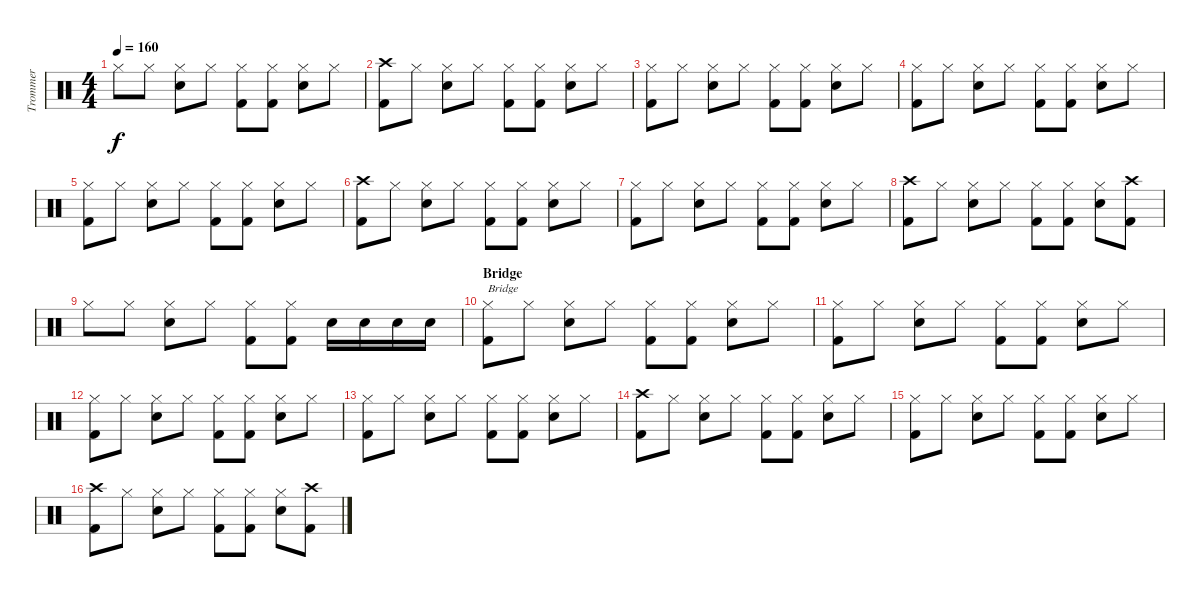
\track ("Trommer" "Trommer") {instrument percussion}
\staff {score}
\articulation defaults
\ts (4 4)
\tempo 160
\clef neutral
\ks c "Hi-Hat (closed)".8{dy f} "Hi-Hat (closed)".8
("Hi-Hat (closed)" "Electric Snare (hit)").8 "Hi-Hat (closed)".8 ("Hi-Hat (closed)" "Kick (hit) 2").8 ("Hi-Hat (closed)" "Kick (hit) 2").8 ("Hi-Hat (closed)" "Electric Snare (hit)").8 "Hi-Hat (closed)".8 |
("Crash high (hit)" "Kick (hit) 2").8 "Hi-Hat (closed)".8 ("Hi-Hat (closed)" "Electric Snare (hit)").8 "Hi-Hat (closed)".8 ("Hi-Hat (closed)" "Kick (hit) 2").8 ("Hi-Hat (closed)" "Kick (hit) 2").8 ("Hi-Hat (closed)" "Electric Snare (hit)").8 "Hi-Hat (closed)".8 |
("Hi-Hat (closed)" "Kick (hit) 2").8 "Hi-Hat (closed)".8 ("Hi-Hat (closed)" "Electric Snare (hit)").8 "Hi-Hat (closed)".8 ("Hi-Hat (closed)" "Kick (hit) 2").8 ("Hi-Hat (closed)" "Kick (hit) 2").8 ("Hi-Hat (closed)" "Electric Snare (hit)").8 "Hi-Hat (closed)".8 |
("Hi-Hat (closed)" "Kick (hit) 2").8 "Hi-Hat (closed)".8 ("Hi-Hat (closed)" "Electric Snare (hit)").8 "Hi-Hat (closed)".8 ("Hi-Hat (closed)" "Kick (hit) 2").8 ("Hi-Hat (closed)" "Kick (hit) 2").8 ("Hi-Hat (closed)" "Electric Snare (hit)").8 "Hi-Hat (closed)".8 |
("Hi-Hat (closed)" "Kick (hit) 2").8 "Hi-Hat (closed)".8 ("Hi-Hat (closed)" "Electric Snare (hit)").8 "Hi-Hat (closed)".8 ("Hi-Hat (closed)" "Kick (hit) 2").8 ("Hi-Hat (closed)" "Kick (hit) 2").8 ("Hi-Hat (closed)" "Electric Snare (hit)").8 "Hi-Hat (closed)".8 |
("Crash high (hit)" "Kick (hit) 2").8 "Hi-Hat (closed)".8 ("Hi-Hat (closed)" "Electric Snare (hit)").8 "Hi-Hat (closed)".8 ("Hi-Hat (closed)" "Kick (hit) 2").8 ("Hi-Hat (closed)" "Kick (hit) 2").8 ("Hi-Hat (closed)" "Electric Snare (hit)").8 "Hi-Hat (closed)".8 |
("Hi-Hat (closed)" "Kick (hit) 2").8 "Hi-Hat (closed)".8 ("Hi-Hat (closed)" "Electric Snare (hit)").8 "Hi-Hat (closed)".8 ("Hi-Hat (closed)" "Kick (hit) 2").8 ("Hi-Hat (closed)" "Kick (hit) 2").8 ("Hi-Hat (closed)" "Electric Snare (hit)").8 "Hi-Hat (closed)".8 |
("Crash high (hit)" "Kick (hit) 2").8 "Hi-Hat (closed)".8 ("Hi-Hat (closed)" "Electric Snare (hit)").8 "Hi-Hat (closed)".8 ("Hi-Hat (closed)" "Kick (hit) 2").8 ("Hi-Hat (closed)" "Kick (hit) 2").8 ("Hi-Hat (closed)" "Electric Snare (hit)").8 ("Crash high (hit)" "Kick (hit) 2").8 |
"Hi-Hat (closed)".8 "Hi-Hat (closed)".8 ("Hi-Hat (closed)" "Electric Snare (hit)").8 "Hi-Hat (closed)".8 ("Hi-Hat (closed)" "Kick (hit) 2").8 ("Hi-Hat (closed)" "Kick (hit) 2").8 "Electric Snare (hit)".16 "Electric Snare (hit)".16 "Electric Snare (hit)".16 "Electric Snare (hit)".16 |
\section ("" "Bridge")
("Hi-Hat (closed)" "Kick (hit) 2").8{txt "Bridge"} "Hi-Hat (closed)".8 ("Hi-Hat (closed)" "Electric Snare (hit)").8 "Hi-Hat (closed)".8 ("Hi-Hat (closed)" "Kick (hit) 2").8 ("Hi-Hat (closed)" "Kick (hit) 2").8 ("Hi-Hat (closed)" "Electric Snare (hit)").8 "Hi-Hat (closed)".8 |
("Hi-Hat (closed)" "Kick (hit) 2").8 "Hi-Hat (closed)".8 ("Hi-Hat (closed)" "Electric Snare (hit)").8 "Hi-Hat (closed)".8 ("Hi-Hat (closed)" "Kick (hit) 2").8 ("Hi-Hat (closed)" "Kick (hit) 2").8 ("Hi-Hat (closed)" "Electric Snare (hit)").8 "Hi-Hat (closed)".8 |
("Hi-Hat (closed)" "Kick (hit) 2").8 "Hi-Hat (closed)".8 ("Hi-Hat (closed)" "Electric Snare (hit)").8 "Hi-Hat (closed)".8 ("Hi-Hat (closed)" "Kick (hit) 2").8 ("Hi-Hat (closed)" "Kick (hit) 2").8 ("Hi-Hat (closed)" "Electric Snare (hit)").8 "Hi-Hat (closed)".8 |
("Hi-Hat (closed)" "Kick (hit) 2").8 "Hi-Hat (closed)".8 ("Hi-Hat (closed)" "Electric Snare (hit)").8 "Hi-Hat (closed)".8 ("Hi-Hat (closed)" "Kick (hit) 2").8 ("Hi-Hat (closed)" "Kick (hit) 2").8 ("Hi-Hat (closed)" "Electric Snare (hit)").8 "Hi-Hat (closed)".8 |
("Crash high (hit)" "Kick (hit) 2").8 "Hi-Hat (closed)".8 ("Hi-Hat (closed)" "Electric Snare (hit)").8 "Hi-Hat (closed)".8 ("Hi-Hat (closed)" "Kick (hit) 2").8 ("Hi-Hat (closed)" "Kick (hit) 2").8 ("Hi-Hat (closed)" "Electric Snare (hit)").8 "Hi-Hat (closed)".8 |
("Hi-Hat (closed)" "Kick (hit) 2").8 "Hi-Hat (closed)".8 ("Hi-Hat (closed)" "Electric Snare (hit)").8 "Hi-Hat (closed)".8 ("Hi-Hat (closed)" "Kick (hit) 2").8 ("Hi-Hat (closed)" "Kick (hit) 2").8 ("Hi-Hat (closed)" "Electric Snare (hit)").8 "Hi-Hat (closed)".8 |
("Crash high (hit)" "Kick (hit) 2").8 "Hi-Hat (closed)".8 ("Hi-Hat (closed)" "Electric Snare (hit)").8 "Hi-Hat (closed)".8 ("Hi-Hat (closed)" "Kick (hit) 2").8 ("Hi-Hat (closed)" "Kick (hit) 2").8 ("Hi-Hat (closed)" "Electric Snare (hit)").8 ("Crash high (hit)" "Kick (hit) 2").8
